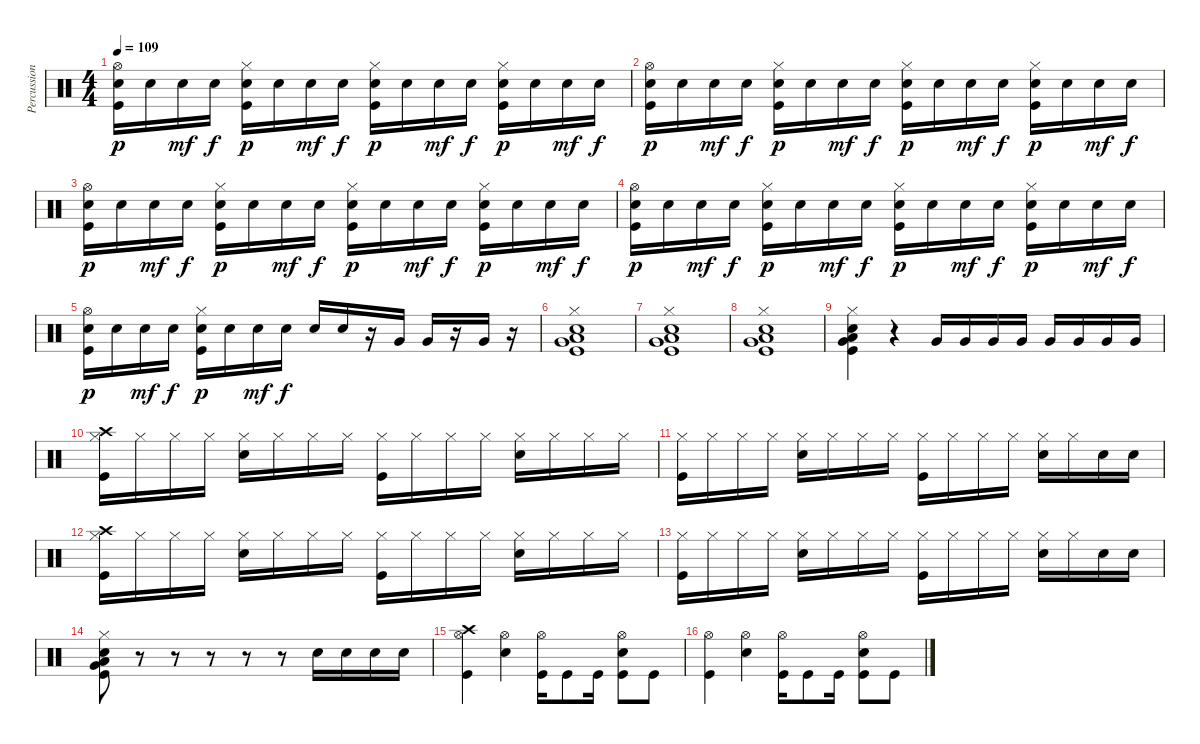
\track ("Percussion" "Percussion") {instrument percussion}
\staff {score}
\articulation defaults
\ts (4 4)
\tempo 109
\clef neutral
\ks c
("Hi-Hat (open)" "Electric Snare (hit)" "Kick (hit)").16{dy p} "Electric Snare (hit)".16 "Electric Snare (hit)".16{dy mf} "Electric Snare (hit)".16{dy f} ("Hi-Hat (closed)" "Electric Snare (hit)" "Kick (hit)").16{dy p} "Electric Snare (hit)".16 "Electric Snare (hit)".16{dy mf} "Electric Snare (hit)".16{dy f} ("Hi-Hat (closed)" "Electric Snare (hit)" "Kick (hit)").16{dy p} "Electric Snare (hit)".16 "Electric Snare (hit)".16{dy mf} "Electric Snare (hit)".16{dy f} ("Hi-Hat (closed)" "Electric Snare (hit)" "Kick (hit)").16{dy p} "Electric Snare (hit)".16 "Electric Snare (hit)".16{dy mf} "Electric Snare (hit)".16{dy f} |
("Hi-Hat (open)" "Electric Snare (hit)" "Kick (hit)").16{dy p} "Electric Snare (hit)".16 "Electric Snare (hit)".16{dy mf} "Electric Snare (hit)".16{dy f} ("Hi-Hat (closed)" "Electric Snare (hit)" "Kick (hit)").16{dy p} "Electric Snare (hit)".16 "Electric Snare (hit)".16{dy mf} "Electric Snare (hit)".16{dy f} ("Hi-Hat (closed)" "Electric Snare (hit)" "Kick (hit)").16{dy p} "Electric Snare (hit)".16 "Electric Snare (hit)".16{dy mf} "Electric Snare (hit)".16{dy f} ("Hi-Hat (closed)" "Electric Snare (hit)" "Kick (hit)").16{dy p} "Electric Snare (hit)".16 "Electric Snare (hit)".16{dy mf} "Electric Snare (hit)".16{dy f} |
("Hi-Hat (open)" "Electric Snare (hit)" "Kick (hit)").16{dy p} "Electric Snare (hit)".16 "Electric Snare (hit)".16{dy mf} "Electric Snare (hit)".16{dy f} ("Hi-Hat (closed)" "Electric Snare (hit)" "Kick (hit)").16{dy p} "Electric Snare (hit)".16 "Electric Snare (hit)".16{dy mf} "Electric Snare (hit)".16{dy f} ("Hi-Hat (closed)" "Electric Snare (hit)" "Kick (hit)").16{dy p} "Electric Snare (hit)".16 "Electric Snare (hit)".16{dy mf} "Electric Snare (hit)".16{dy f} ("Hi-Hat (closed)" "Electric Snare (hit)" "Kick (hit)").16{dy p} "Electric Snare (hit)".16 "Electric Snare (hit)".16{dy mf} "Electric Snare (hit)".16{dy f} |
("Hi-Hat (open)" "Electric Snare (hit)" "Kick (hit)").16{dy p} "Electric Snare (hit)".16 "Electric Snare (hit)".16{dy mf} "Electric Snare (hit)".16{dy f} ("Hi-Hat (closed)" "Electric Snare (hit)" "Kick (hit)").16{dy p} "Electric Snare (hit)".16 "Electric Snare (hit)".16{dy mf} "Electric Snare (hit)".16{dy f} ("Hi-Hat (closed)" "Electric Snare (hit)" "Kick (hit)").16{dy p} "Electric Snare (hit)".16 "Electric Snare (hit)".16{dy mf} "Electric Snare (hit)".16{dy f} ("Hi-Hat (closed)" "Electric Snare (hit)" "Kick (hit)").16{dy p} "Electric Snare (hit)".16 "Electric Snare (hit)".16{dy mf} "Electric Snare (hit)".16{dy f} |
("Hi-Hat (open)" "Electric Snare (hit)" "Kick (hit)").16{dy p} "Electric Snare (hit)".16 "Electric Snare (hit)".16{dy mf} "Electric Snare (hit)".16{dy f} ("Hi-Hat (closed)" "Electric Snare (hit)" "Kick (hit)").16{dy p} "Electric Snare (hit)".16 "Electric Snare (hit)".16{dy mf} "Electric Snare (hit)".16{dy f} "Electric Snare (hit)".16 "Electric Snare (hit)".16 r.16 "Very Low Tom (hit)".16 "Very Low Tom (hit)".16 r.16 "Very Low Tom (hit)".16 r.16 |
("Kick (hit)" "Very Low Tom (hit)" "Low Floor Tom (hit)" "Hi-Hat (closed)" "Electric Snare (hit)").1 |
("Kick (hit)" "Very Low Tom (hit)" "Low Floor Tom (hit)" "Hi-Hat (closed)" "Electric Snare (hit)").1 |
("Kick (hit)" "Very Low Tom (hit)" "Low Floor Tom (hit)" "Hi-Hat (closed)" "Electric Snare (hit)").1 |
("Kick (hit)" "Very Low Tom (hit)" "Low Floor Tom (hit)" "Hi-Hat (closed)" "Electric Snare (hit)").4 r.4 "Very Low Tom (hit)".16 "Very Low Tom (hit)".16 "Very Low Tom (hit)".16 "Very Low Tom (hit)".16 "Very Low Tom (hit)".16 "Very Low Tom (hit)".16 "Very Low Tom (hit)".16 "Very Low Tom (hit)".16 |
("Crash high (hit)" "Hi-Hat (closed)" "Kick (hit)").16 "Hi-Hat (closed)".16 "Hi-Hat (closed)".16 "Hi-Hat (closed)".16 ("Hi-Hat (closed)" "Electric Snare (hit)").16 "Hi-Hat (closed)".16 "Hi-Hat (closed)".16 "Hi-Hat (closed)".16 ("Hi-Hat (closed)" "Kick (hit)").16 "Hi-Hat (closed)".16 "Hi-Hat (closed)".16 "Hi-Hat (closed)".16 ("Hi-Hat (closed)" "Electric Snare (hit)").16 "Hi-Hat (closed)".16 "Hi-Hat (closed)".16 "Hi-Hat (closed)".16 |
("Hi-Hat (closed)" "Kick (hit)").16 "Hi-Hat (closed)".16 "Hi-Hat (closed)".16 "Hi-Hat (closed)".16 ("Hi-Hat (closed)" "Electric Snare (hit)").16 "Hi-Hat (closed)".16 "Hi-Hat (closed)".16 "Hi-Hat (closed)".16 ("Hi-Hat (closed)" "Kick (hit)").16 "Hi-Hat (closed)".16 "Hi-Hat (closed)".16 "Hi-Hat (closed)".16 ("Hi-Hat (closed)" "Electric Snare (hit)").16 "Hi-Hat (closed)".16 "Electric Snare (hit)".16 "Electric Snare (hit)".16 |
("Crash high (hit)" "Hi-Hat (closed)" "Kick (hit)").16 "Hi-Hat (closed)".16 "Hi-Hat (closed)".16 "Hi-Hat (closed)".16 ("Hi-Hat (closed)" "Electric Snare (hit)").16 "Hi-Hat (closed)".16 "Hi-Hat (closed)".16 "Hi-Hat (closed)".16 ("Hi-Hat (closed)" "Kick (hit)").16 "Hi-Hat (closed)".16 "Hi-Hat (closed)".16 "Hi-Hat (closed)".16 ("Hi-Hat (closed)" "Electric Snare (hit)").16 "Hi-Hat (closed)".16 "Hi-Hat (closed)".16 "Hi-Hat (closed)".16 |
("Hi-Hat (closed)" "Kick (hit)").16 "Hi-Hat (closed)".16 "Hi-Hat (closed)".16 "Hi-Hat (closed)".16 ("Hi-Hat (closed)" "Electric Snare (hit)").16 "Hi-Hat (closed)".16 "Hi-Hat (closed)".16 "Hi-Hat (closed)".16 ("Hi-Hat (closed)" "Kick (hit)").16 "Hi-Hat (closed)".16 "Hi-Hat (closed)".16 "Hi-Hat (closed)".16 ("Hi-Hat (closed)" "Electric Snare (hit)").16 "Hi-Hat (closed)".16 "Electric Snare (hit)".16 "Electric Snare (hit)".16 |
("Hi-Hat (closed)" "Kick (hit)" "Low Floor Tom (hit)" "Electric Snare (hit)" "Very Low Tom (hit)").8 r.8 r.8 r.8 r.8 r.8 "Electric Snare (hit)".16 "Electric Snare (hit)".16 "Electric Snare (hit)".16 "Electric Snare (hit)".16 |
("Crash high (hit)" "Hi-Hat (open)" "Kick (hit)").4 ("Hi-Hat (open)" "Electric Snare (hit)").4 ("Hi-Hat (open)" "Kick (hit)").16 "Kick (hit)".8 "Kick (hit)".16 ("Hi-Hat (open)" "Electric Snare (hit)" "Kick (hit)").8 "Kick (hit)".8 |
("Hi-Hat (open)" "Kick (hit)").4 ("Hi-Hat (open)" "Electric Snare (hit)").4 ("Hi-Hat (open)" "Kick (hit)").16 "Kick (hit)".8 "Kick (hit)".16 ("Hi-Hat (open)" "Electric Snare (hit)" "Kick (hit)").8 "Kick (hit)".8
